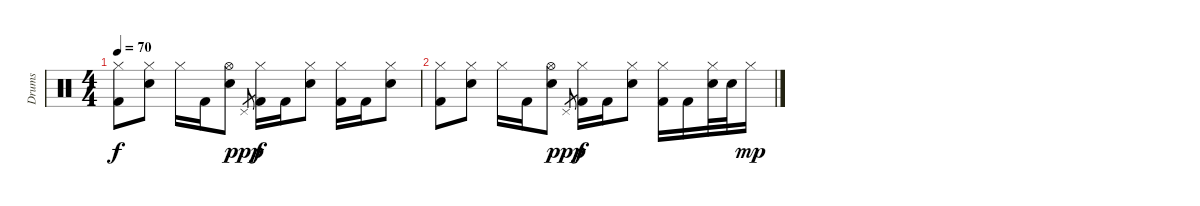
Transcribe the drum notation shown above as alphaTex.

\track ("Drums" "Drums") {instrument percussion}
\staff {score}
\articulation defaults
\ts (4 4)
\tempo 70
\clef neutral
\ks c
("Hi-Hat (closed)" "Kick (hit) 2").8{dy f} ("Hi-Hat (closed)" "Electric Snare (hit)").8 "Hi-Hat (closed)".16 "Kick (hit) 2".16 ("Hi-Hat (open)" "Electric Snare (hit)").8 "Pedal Hi-Hat (hit)".8{gr dy ppp} ("Hi-Hat (closed)" "Kick (hit) 2").16{dy f} "Kick (hit) 2".16 ("Hi-Hat (closed)" "Electric Snare (hit)").8 ("Hi-Hat (closed)" "Kick (hit) 2").16 "Kick (hit) 2".16 ("Hi-Hat (closed)" "Electric Snare (hit)").8 |
("Hi-Hat (closed)" "Kick (hit) 2").8 ("Hi-Hat (closed)" "Electric Snare (hit)").8 "Hi-Hat (closed)".16 "Kick (hit) 2".16 ("Hi-Hat (open)" "Electric Snare (hit)").8 "Pedal Hi-Hat (hit)".8{gr dy ppp} ("Hi-Hat (closed)" "Kick (hit) 2").16{dy f} "Kick (hit) 2".16 ("Hi-Hat (closed)" "Electric Snare (hit)").8 ("Hi-Hat (closed)" "Kick (hit) 2").16 "Kick (hit) 2".16 ("Hi-Hat (closed)" "Electric Snare (hit)").32 "Electric Snare (hit)".32 "Hi-Hat (closed)".16{dy mp}
